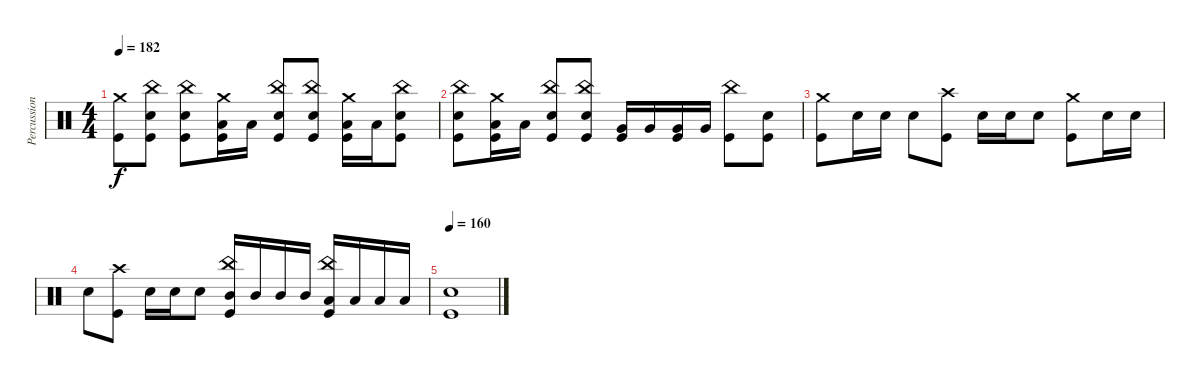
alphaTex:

\track ("Percussion" "Percussion") {instrument percussion}
\staff {score}
\articulation defaults
\ts (4 4)
\tempo 182
\clef neutral
\ks c
("Crash medium (hit)" "Kick (hit)").8{dy f} ("China (hit)" "Snare (hit) 2" "Kick (hit)").8 ("China (hit)" "Snare (hit) 2" "Kick (hit)").8 ("Crash medium (hit)" "Low Floor Tom (hit)" "Kick (hit)").16 "Low Floor Tom (hit)".16 ("China (hit)" "Snare (hit) 2" "Kick (hit)").8 ("China (hit)" "Snare (hit) 2" "Kick (hit)").8 ("Crash medium (hit)" "Low Floor Tom (hit)" "Kick (hit)").16 "Low Floor Tom (hit)".16 ("China (hit)" "Snare (hit) 2" "Kick (hit)").8 |
("China (hit)" "Snare (hit) 2" "Kick (hit)").8 ("Crash medium (hit)" "Low Floor Tom (hit)" "Kick (hit)").16 "Low Floor Tom (hit)".16 ("China (hit)" "Snare (hit) 2" "Kick (hit)").8 ("China (hit)" "Snare (hit) 2" "Kick (hit)").8 ("Very Low Tom (hit)" "Kick (hit)").16 "Very Low Tom (hit)".16 ("Very Low Tom (hit)" "Kick (hit)").16 "Very Low Tom (hit)".16 ("China (hit)" "Kick (hit)").8 ("Snare (hit) 2" "Kick (hit)").8 |
("Crash medium (hit)" "Kick (hit)").8 "Snare (hit) 2".16 "Snare (hit) 2".16 "Snare (hit) 2".8 ("Crash high (hit)" "Kick (hit)").8 "Snare (hit) 2".16 "Snare (hit) 2".16 "Snare (hit) 2".8 ("Crash medium (hit)" "Kick (hit)").8 "Snare (hit) 2".16 "Snare (hit) 2".16 |
"Snare (hit) 2".8 ("Crash high (hit)" "Kick (hit)").8 "Snare (hit) 2".16 "Snare (hit) 2".16 "Snare (hit) 2".8 ("China (hit)" "Mid Tom (hit)" "Kick (hit)").16 "Mid Tom (hit)".16 "Mid Tom (hit)".16 "Mid Tom (hit)".16 ("China (hit)" "Low Tom (hit)" "Kick (hit)").16 "Low Tom (hit)".16 "Low Tom (hit)".16 "Low Tom (hit)".16 |
\tempo 160
("Snare (hit) 2" "Kick (hit)").1
